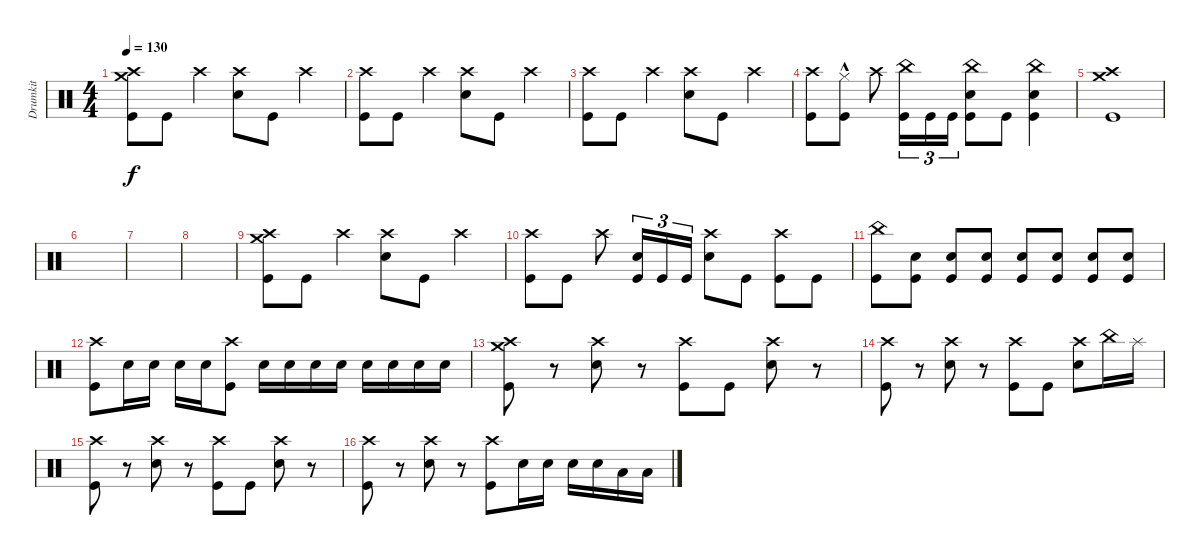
\track ("Drumkit" "Drumkit") {instrument percussion}
\staff {score}
\articulation defaults
\ts (4 4)
\tempo 130
\clef neutral
\ks c
("Kick (hit)" "Crash medium (hit)" "Crash high (hit)").8{dy f} "Kick (hit)".8 "Crash high (hit)".4 ("Snare (hit) 2" "Crash high (hit)").8 "Kick (hit)".8 "Crash high (hit)".4 |
("Kick (hit)" "Crash high (hit)").8 "Kick (hit)".8 "Crash high (hit)".4 ("Snare (hit) 2" "Crash high (hit)").8 "Kick (hit)".8 "Crash high (hit)".4 |
("Kick (hit)" "Crash high (hit)").8 "Kick (hit)".8 "Crash high (hit)".4 ("Snare (hit) 2" "Crash high (hit)").8 "Kick (hit)".8 "Crash high (hit)".4 |
("Crash high (hit)" "Kick (hit)").8 ("Hi-Hat (closed)"{hac} "Kick (hit)").8 "Crash high (hit)".8 ("Kick (hit)" "China (hit)").16{tu (3 2)} "Kick (hit)".16{tu (3 2)} "Kick (hit)".16{tu (3 2)} ("China (hit)" "Kick (hit)" "Snare (hit) 2").8 "Kick (hit)".8 ("China (hit)" "Kick (hit)" "Snare (hit) 2").4 |
("Kick (hit)" "Crash high (hit)" "Crash medium (hit)").1 |
|
|
|
("Kick (hit)" "Crash medium (hit)" "Crash high (hit)").8 "Kick (hit)".8 "Crash high (hit)".4 ("Snare (hit) 2" "Crash high (hit)").8 "Kick (hit)".8 "Crash high (hit)".4 |
("Kick (hit)" "Crash high (hit)").8 "Kick (hit)".8 "Crash high (hit)".8 ("Kick (hit)" "Snare (hit) 2").16{tu (3 2)} "Kick (hit)".16{tu (3 2)} "Kick (hit)".16{tu (3 2)} ("Crash high (hit)" "Snare (hit) 2").8 "Kick (hit)".8 ("Kick (hit)" "Crash high (hit)").8 "Kick (hit)".8 |
("Kick (hit)" "China (hit)").8 ("Snare (hit) 2" "Kick (hit)").8 ("Kick (hit)" "Snare (hit) 2").8 ("Snare (hit) 2" "Kick (hit)").8 ("Snare (hit) 2" "Kick (hit)").8 ("Kick (hit)" "Snare (hit) 2").8 ("Snare (hit) 2" "Kick (hit)").8 ("Kick (hit)" "Snare (hit) 2").8 |
("Kick (hit)" "Crash high (hit)").8 "Snare (hit) 2".16 "Snare (hit) 2".16 "Snare (hit) 2".16 "Snare (hit) 2".16 ("Kick (hit)" "Crash high (hit)").8 "Snare (hit) 2".16 "Snare (hit) 2".16 "Snare (hit) 2".16 "Snare (hit) 2".16 "Snare (hit) 2".16 "Snare (hit) 2".16 "Snare (hit) 2".16 "Snare (hit) 2".16 |
("Kick (hit)" "Crash high (hit)" "Crash medium (hit)").8 r.8 ("Snare (hit) 2" "Crash high (hit)").8 r.8 ("Kick (hit)" "Crash high (hit)").8 "Kick (hit)".8 ("Crash high (hit)" "Snare (hit) 2").8 r.8 |
("Kick (hit)" "Crash high (hit)").8 r.8 ("Snare (hit) 2" "Crash high (hit)").8 r.8 ("Kick (hit)" "Crash high (hit)").8 "Kick (hit)".8 ("Snare (hit) 2" "Crash high (hit)").8 "China (hit)".16 "Splash (hit)".16 |
("Kick (hit)" "Crash high (hit)").8 r.8 ("Snare (hit) 2" "Crash high (hit)").8 r.8 ("Kick (hit)" "Crash high (hit)").8 "Kick (hit)".8 ("Crash high (hit)" "Snare (hit) 2").8 r.8 |
("Kick (hit)" "Crash high (hit)").8 r.8 ("Snare (hit) 2" "Crash high (hit)").8 r.8 ("Kick (hit)" "Crash high (hit)").8 "Snare (hit) 2".16 "Snare (hit) 2".16 "Snare (hit) 2".16 "Snare (hit) 2".16 "Low Tom (hit)".16 "Low Tom (hit)".16
